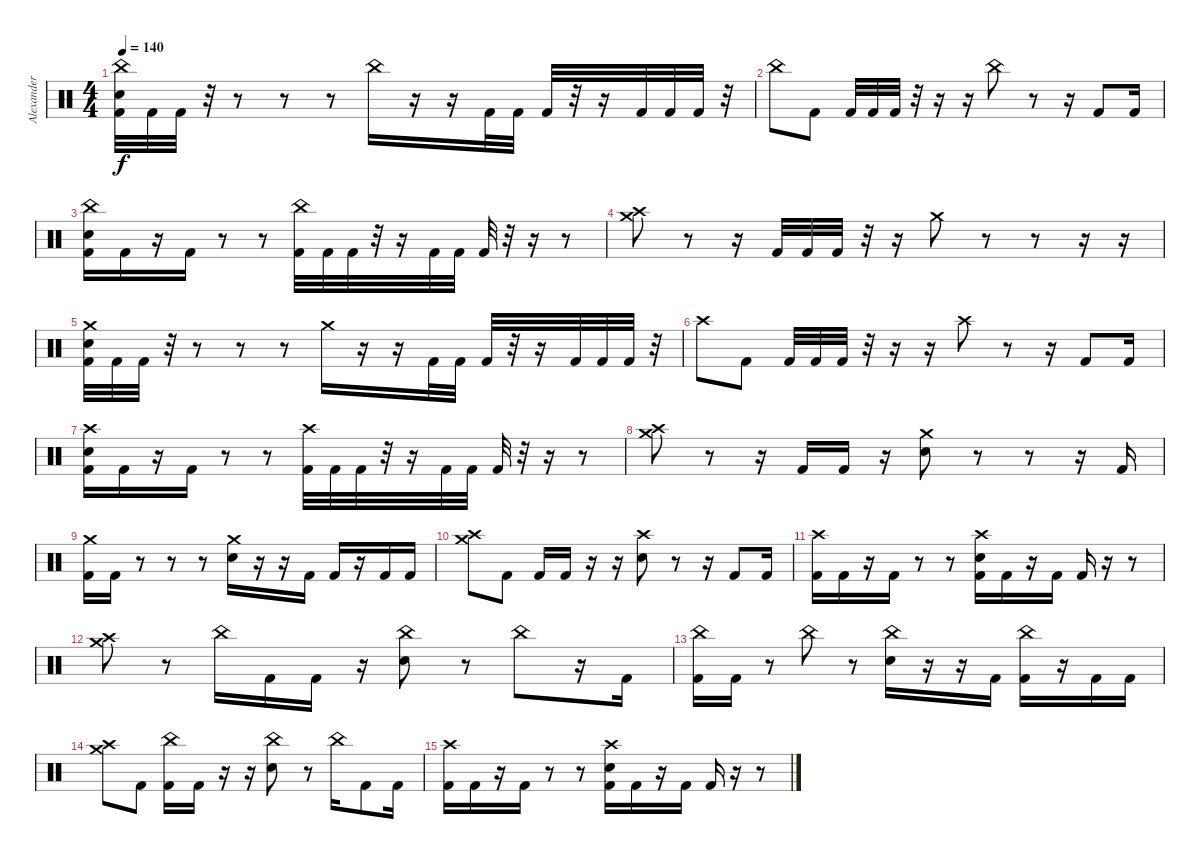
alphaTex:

\track ("Alexander Yazikov" "Alexander ") {instrument percussion}
\staff {score}
\articulation defaults
\ts (4 4)
\tempo 140
\clef neutral
\ks c
("China (hit)" "Electric Snare (hit)" "Kick (hit) 2").32{dy f} "Kick (hit) 2".32 "Kick (hit) 2".32 r.32 r.8 r.8 r.8 "China (hit)".16 r.16 r.16 "Kick (hit) 2".32 "Kick (hit) 2".32 "Kick (hit) 2".32 r.32 r.16 "Kick (hit) 2".32 "Kick (hit) 2".32 "Kick (hit) 2".32 r.32 |
"China (hit)".8 "Kick (hit) 2".8 "Kick (hit) 2".32 "Kick (hit) 2".32 "Kick (hit) 2".32 r.32 r.16 r.16 "China (hit)".8 r.8 r.16 "Kick (hit) 2".8 "Kick (hit) 2".16 |
("China (hit)" "Electric Snare (hit)" "Kick (hit) 2").16 "Kick (hit) 2".16 r.16 "Kick (hit) 2".16 r.8 r.8 ("China (hit)" "Kick (hit) 2").32 "Kick (hit) 2".32 "Kick (hit) 2".32 r.32 r.16 "Kick (hit) 2".32 "Kick (hit) 2".32 "Kick (hit) 2".32 r.32 r.16 r.8 |
("Crash high (hit)" "Crash medium (hit)").8 r.8 r.16 "Kick (hit) 2".32 "Kick (hit) 2".32 "Kick (hit) 2".32 r.32 r.16 "Crash medium (hit)".8 r.8 r.8 r.16 r.16 |
("Crash medium (hit)" "Electric Snare (hit)" "Kick (hit) 2").32 "Kick (hit) 2".32 "Kick (hit) 2".32 r.32 r.8 r.8 r.8 "Crash medium (hit)".16 r.16 r.16 "Kick (hit) 2".32 "Kick (hit) 2".32 "Kick (hit) 2".32 r.32 r.16 "Kick (hit) 2".32 "Kick (hit) 2".32 "Kick (hit) 2".32 r.32 |
"Crash high (hit)".8 "Kick (hit) 2".8 "Kick (hit) 2".32 "Kick (hit) 2".32 "Kick (hit) 2".32 r.32 r.16 r.16 "Crash high (hit)".8 r.8 r.16 "Kick (hit) 2".8 "Kick (hit) 2".16 |
("Crash high (hit)" "Electric Snare (hit)" "Kick (hit) 2").16 "Kick (hit) 2".16 r.16 "Kick (hit) 2".16 r.8 r.8 ("Crash high (hit)" "Kick (hit) 2").32 "Kick (hit) 2".32 "Kick (hit) 2".32 r.32 r.16 "Kick (hit) 2".32 "Kick (hit) 2".32 "Kick (hit) 2".32 r.32 r.16 r.8 |
("Crash high (hit)" "Crash medium (hit)").8 r.8 r.16 "Kick (hit) 2".16 "Kick (hit) 2".16 r.16 ("Crash medium (hit)" "Electric Snare (hit)").8 r.8 r.8 r.16 "Kick (hit) 2".16 |
("Crash medium (hit)" "Kick (hit) 2").16 "Kick (hit) 2".16 r.8 r.8 r.8 ("Crash medium (hit)" "Electric Snare (hit)").16 r.16 r.16 "Kick (hit) 2".16 "Kick (hit) 2".16 r.16 "Kick (hit) 2".16 "Kick (hit) 2".16 |
("Crash high (hit)" "Crash medium (hit)").8 "Kick (hit) 2".8 "Kick (hit) 2".16 "Kick (hit) 2".16 r.16 r.16 ("Crash high (hit)" "Electric Snare (hit)").8 r.8 r.16 "Kick (hit) 2".8 "Kick (hit) 2".16 |
("Crash high (hit)" "Kick (hit) 2").16 "Kick (hit) 2".16 r.16 "Kick (hit) 2".16 r.8 r.8 ("Crash high (hit)" "Electric Snare (hit)" "Kick (hit) 2").16 "Kick (hit) 2".16 r.16 "Kick (hit) 2".16 "Kick (hit) 2".16 r.16 r.8 |
("Crash high (hit)" "Crash medium (hit)").8 r.8 "China (hit)".16 "Kick (hit) 2".16 "Kick (hit) 2".16 r.16 ("China (hit)" "Electric Snare (hit)").8 r.8 "China (hit)".8 r.16 "Kick (hit) 2".16 |
("China (hit)" "Kick (hit) 2").16 "Kick (hit) 2".16 r.8 "China (hit)".8 r.8 ("China (hit)" "Electric Snare (hit)").16 r.16 r.16 "Kick (hit) 2".16 ("China (hit)" "Kick (hit) 2").16 r.16 "Kick (hit) 2".16 "Kick (hit) 2".16 |
("Crash high (hit)" "Crash medium (hit)").8 "Kick (hit) 2".8 ("China (hit)" "Kick (hit) 2").16 "Kick (hit) 2".16 r.16 r.16 ("China (hit)" "Electric Snare (hit)").8 r.8 "China (hit)".16 "Kick (hit) 2".8 "Kick (hit) 2".16 |
("Crash high (hit)" "Kick (hit) 2").16 "Kick (hit) 2".16 r.16 "Kick (hit) 2".16 r.8 r.8 ("Crash high (hit)" "Electric Snare (hit)" "Kick (hit) 2").16 "Kick (hit) 2".16 r.16 "Kick (hit) 2".16 "Kick (hit) 2".16 r.16 r.8
